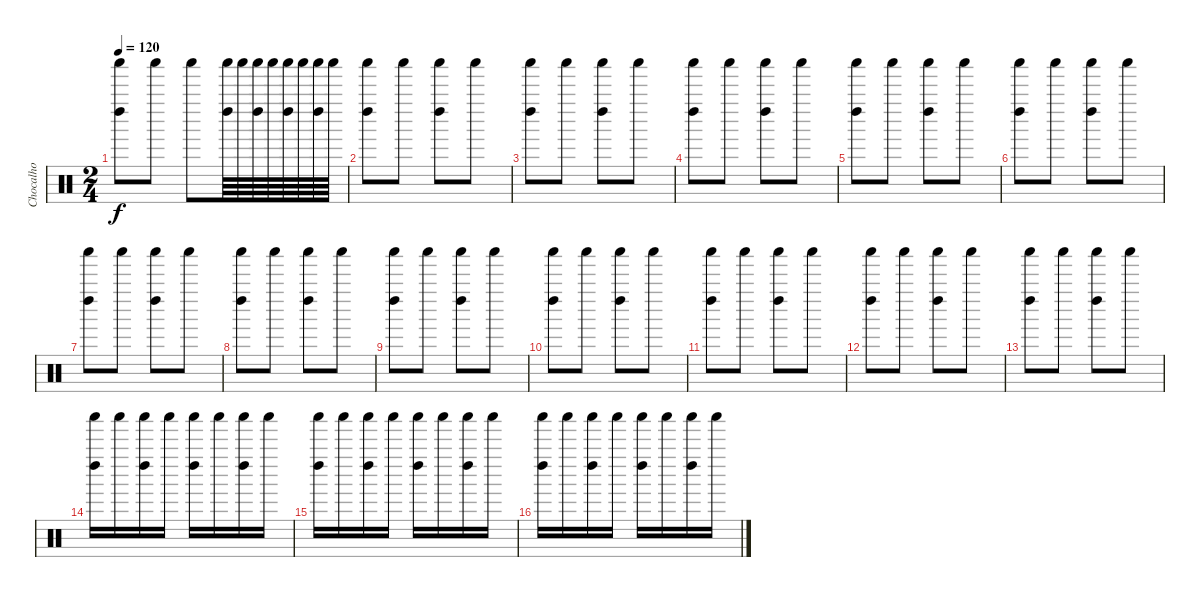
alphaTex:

\track ("Chocalho" "Chocalho") {instrument percussion}
\staff {score}
\articulation defaults
\ts (2 4)
\tempo 120
\clef neutral
\ks c
("Shaker (hit)" "Left Maraca (hit)").8{dy f} "Shaker (hit)".8 "Shaker (hit)".8 ("Shaker (hit)" "Left Maraca (hit)").64 "Shaker (hit)".64 ("Shaker (hit)" "Left Maraca (hit)").64 "Shaker (hit)".64 ("Shaker (hit)" "Left Maraca (hit)").64 "Shaker (hit)".64 ("Shaker (hit)" "Left Maraca (hit)").64 "Shaker (hit)".64 |
("Shaker (hit)" "Left Maraca (hit)").8 "Shaker (hit)".8 ("Shaker (hit)" "Left Maraca (hit)").8 "Shaker (hit)".8 |
("Shaker (hit)" "Left Maraca (hit)").8 "Shaker (hit)".8 ("Shaker (hit)" "Left Maraca (hit)").8 "Shaker (hit)".8 |
("Shaker (hit)" "Left Maraca (hit)").8 "Shaker (hit)".8 ("Shaker (hit)" "Left Maraca (hit)").8 "Shaker (hit)".8 |
("Shaker (hit)" "Left Maraca (hit)").8 "Shaker (hit)".8 ("Shaker (hit)" "Left Maraca (hit)").8 "Shaker (hit)".8 |
("Shaker (hit)" "Left Maraca (hit)").8 "Shaker (hit)".8 ("Shaker (hit)" "Left Maraca (hit)").8 "Shaker (hit)".8 |
("Shaker (hit)" "Left Maraca (hit)").8 "Shaker (hit)".8 ("Shaker (hit)" "Left Maraca (hit)").8 "Shaker (hit)".8 |
("Shaker (hit)" "Left Maraca (hit)").8 "Shaker (hit)".8 ("Shaker (hit)" "Left Maraca (hit)").8 "Shaker (hit)".8 |
("Shaker (hit)" "Left Maraca (hit)").8 "Shaker (hit)".8 ("Shaker (hit)" "Left Maraca (hit)").8 "Shaker (hit)".8 |
("Shaker (hit)" "Left Maraca (hit)").8 "Shaker (hit)".8 ("Shaker (hit)" "Left Maraca (hit)").8 "Shaker (hit)".8 |
("Shaker (hit)" "Left Maraca (hit)").8 "Shaker (hit)".8 ("Shaker (hit)" "Left Maraca (hit)").8 "Shaker (hit)".8 |
("Shaker (hit)" "Left Maraca (hit)").8 "Shaker (hit)".8 ("Shaker (hit)" "Left Maraca (hit)").8 "Shaker (hit)".8 |
("Shaker (hit)" "Left Maraca (hit)").8 "Shaker (hit)".8 ("Shaker (hit)" "Left Maraca (hit)").8 "Shaker (hit)".8 |
("Shaker (hit)" "Left Maraca (hit)").16 "Shaker (hit)".16 ("Shaker (hit)" "Left Maraca (hit)").16 "Shaker (hit)".16 ("Shaker (hit)" "Left Maraca (hit)").16 "Shaker (hit)".16 ("Shaker (hit)" "Left Maraca (hit)").16 "Shaker (hit)".16 |
("Shaker (hit)" "Left Maraca (hit)").16 "Shaker (hit)".16 ("Shaker (hit)" "Left Maraca (hit)").16 "Shaker (hit)".16 ("Shaker (hit)" "Left Maraca (hit)").16 "Shaker (hit)".16 ("Shaker (hit)" "Left Maraca (hit)").16 "Shaker (hit)".16 |
("Shaker (hit)" "Left Maraca (hit)").16 "Shaker (hit)".16 ("Shaker (hit)" "Left Maraca (hit)").16 "Shaker (hit)".16 ("Shaker (hit)" "Left Maraca (hit)").16 "Shaker (hit)".16 ("Shaker (hit)" "Left Maraca (hit)").16 "Shaker (hit)".16
